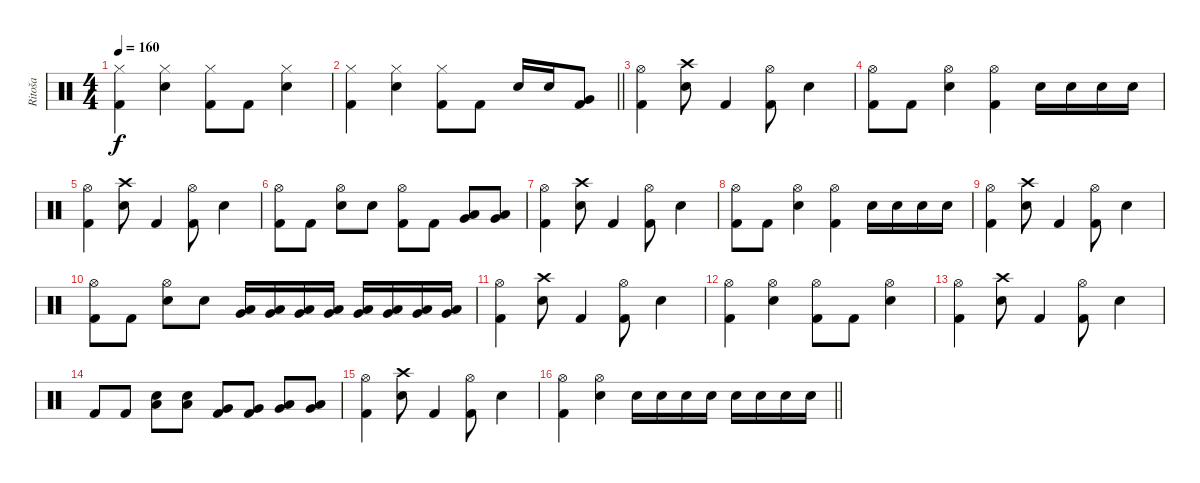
\track ("Ritoša" "Ritoša") {instrument percussion}
\staff {score}
\articulation defaults
\ts (4 4)
\tempo 160
\clef neutral
\ks c
("Hi-Hat (closed)" "Kick (hit) 2").4{dy f} ("Hi-Hat (closed)" "Electric Snare (hit)").4 ("Hi-Hat (closed)" "Kick (hit) 2").8 "Kick (hit) 2".8 ("Hi-Hat (closed)" "Electric Snare (hit)").4 |
\barLineRight lightlight
("Hi-Hat (closed)" "Kick (hit) 2").4 ("Hi-Hat (closed)" "Electric Snare (hit)").4 ("Hi-Hat (closed)" "Kick (hit) 2").8 "Kick (hit) 2".8 "Electric Snare (hit)".16 "Electric Snare (hit)".16 ("Very Low Tom (hit)" "Kick (hit) 2").8 |
("Hi-Hat (open)" "Kick (hit) 2").4 ("Crash high (hit)" "Electric Snare (hit)").8 "Kick (hit) 2".4 ("Hi-Hat (open)" "Kick (hit) 2").8 "Electric Snare (hit)".4 |
("Hi-Hat (open)" "Kick (hit) 2").8 "Kick (hit) 2".8 ("Hi-Hat (open)" "Electric Snare (hit)").4 ("Hi-Hat (open)" "Kick (hit) 2").4 "Electric Snare (hit)".16 "Electric Snare (hit)".16 "Electric Snare (hit)".16 "Electric Snare (hit)".16 |
("Hi-Hat (open)" "Kick (hit) 2").4 ("Crash high (hit)" "Electric Snare (hit)").8 "Kick (hit) 2".4 ("Hi-Hat (open)" "Kick (hit) 2").8 "Electric Snare (hit)".4 |
("Hi-Hat (open)" "Kick (hit) 2").8 "Kick (hit) 2".8 ("Hi-Hat (open)" "Electric Snare (hit)").8 "Electric Snare (hit)".8 ("Hi-Hat (open)" "Kick (hit) 2").8 "Kick (hit) 2".8 ("Very Low Tom (hit)" "Low Floor Tom (hit)").8 ("Very Low Tom (hit)" "Low Floor Tom (hit)").8 |
("Hi-Hat (open)" "Kick (hit) 2").4 ("Crash high (hit)" "Electric Snare (hit)").8 "Kick (hit) 2".4 ("Hi-Hat (open)" "Kick (hit) 2").8 "Electric Snare (hit)".4 |
("Hi-Hat (open)" "Kick (hit) 2").8 "Kick (hit) 2".8 ("Hi-Hat (open)" "Electric Snare (hit)").4 ("Hi-Hat (open)" "Kick (hit) 2").4 "Electric Snare (hit)".16 "Electric Snare (hit)".16 "Electric Snare (hit)".16 "Electric Snare (hit)".16 |
("Hi-Hat (open)" "Kick (hit) 2").4 ("Crash high (hit)" "Electric Snare (hit)").8 "Kick (hit) 2".4 ("Hi-Hat (open)" "Kick (hit) 2").8 "Electric Snare (hit)".4 |
("Hi-Hat (open)" "Kick (hit) 2").8 "Kick (hit) 2".8 ("Hi-Hat (open)" "Electric Snare (hit)").8 "Electric Snare (hit)".8 ("Very Low Tom (hit)" "Low Floor Tom (hit)").16 ("Very Low Tom (hit)" "Low Floor Tom (hit)").16 ("Very Low Tom (hit)" "Low Floor Tom (hit)").16 ("Very Low Tom (hit)" "Low Floor Tom (hit)").16 ("Very Low Tom (hit)" "Low Floor Tom (hit)").16 ("Very Low Tom (hit)" "Low Floor Tom (hit)").16 ("Very Low Tom (hit)" "Low Floor Tom (hit)").16 ("Very Low Tom (hit)" "Low Floor Tom (hit)").16 |
("Hi-Hat (open)" "Kick (hit) 2").4 ("Crash high (hit)" "Electric Snare (hit)").8 "Kick (hit) 2".4 ("Hi-Hat (open)" "Kick (hit) 2").8 "Electric Snare (hit)".4 |
("Hi-Hat (open)" "Kick (hit) 2").4 ("Hi-Hat (open)" "Electric Snare (hit)").4 ("Hi-Hat (open)" "Kick (hit) 2").8 "Kick (hit) 2".8 ("Hi-Hat (open)" "Electric Snare (hit)").4 |
("Hi-Hat (open)" "Kick (hit) 2").4 ("Crash high (hit)" "Electric Snare (hit)").8 "Kick (hit) 2".4 ("Hi-Hat (open)" "Kick (hit) 2").8 "Electric Snare (hit)".4 |
"Kick (hit) 2".8 "Kick (hit) 2".8 ("Electric Snare (hit)" "Low Floor Tom (hit)").8 ("Electric Snare (hit)" "Low Floor Tom (hit)").8 ("Very Low Tom (hit)" "Kick (hit) 2").8 ("Very Low Tom (hit)" "Kick (hit) 2").8 ("Very Low Tom (hit)" "Low Floor Tom (hit)").8 ("Very Low Tom (hit)" "Low Floor Tom (hit)").8 |
("Hi-Hat (open)" "Kick (hit) 2").4 ("Crash high (hit)" "Electric Snare (hit)").8 "Kick (hit) 2".4 ("Hi-Hat (open)" "Kick (hit) 2").8 "Electric Snare (hit)".4 |
\barLineRight lightlight
("Hi-Hat (open)" "Kick (hit) 2").4 ("Hi-Hat (open)" "Electric Snare (hit)").4 "Electric Snare (hit)".16 "Electric Snare (hit)".16 "Electric Snare (hit)".16 "Electric Snare (hit)".16 "Electric Snare (hit)".16 "Electric Snare (hit)".16 "Electric Snare (hit)".16 "Electric Snare (hit)".16
